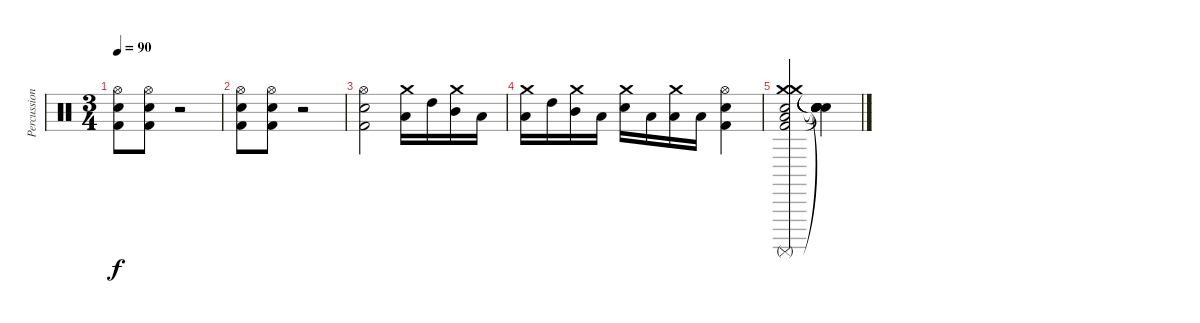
\track ("Percussion" "Percussion") {instrument percussion}
\staff {score}
\articulation defaults
\ts (3 4)
\tempo 90
\clef neutral
\ks c
("Hi-Hat (open)" "Snare (hit) 2" "Kick (hit) 2").8{dy f} ("Hi-Hat (open)" "Snare (hit) 2" "Kick (hit) 2").8 r.2 |
("Hi-Hat (open)" "Snare (hit) 2" "Kick (hit) 2").8 ("Hi-Hat (open)" "Snare (hit) 2" "Kick (hit) 2").8 r.2 |
("Hi-Hat (open)" "Snare (hit) 2" "Kick (hit) 2").2 ("Crash medium (hit)" "Low Tom (hit)").16 "High Tom (hit)".16 ("Crash medium (hit)" "Mid Tom (hit)").16 "Low Tom (hit)".16 |
("Crash medium (hit)" "Low Tom (hit)").16 "High Tom (hit)".16 ("Crash medium (hit)" "Mid Tom (hit)").16 "Low Tom (hit)".16 ("Crash medium (hit)" "Electric Snare (hit)").16 "Low Tom (hit)".16 ("Crash medium (hit)" "Low Tom (hit)").16 "Low Tom (hit)".16 ("Hi-Hat (open)" "Snare (hit) 2" "Kick (hit) 2").4 |
("Crash medium (hit)" "Surdo (mute)" "Low Tom (hit)" "Crash medium (hit)" "Snare (hit) 2" "Kick (hit) 2").2 ("Snare (hit)"{t} "Snare (hit)"{t} "Snare (hit)"{t} "Snare (hit)"{t} "Snare (hit)"{t} "Snare (hit)"{t}).4
